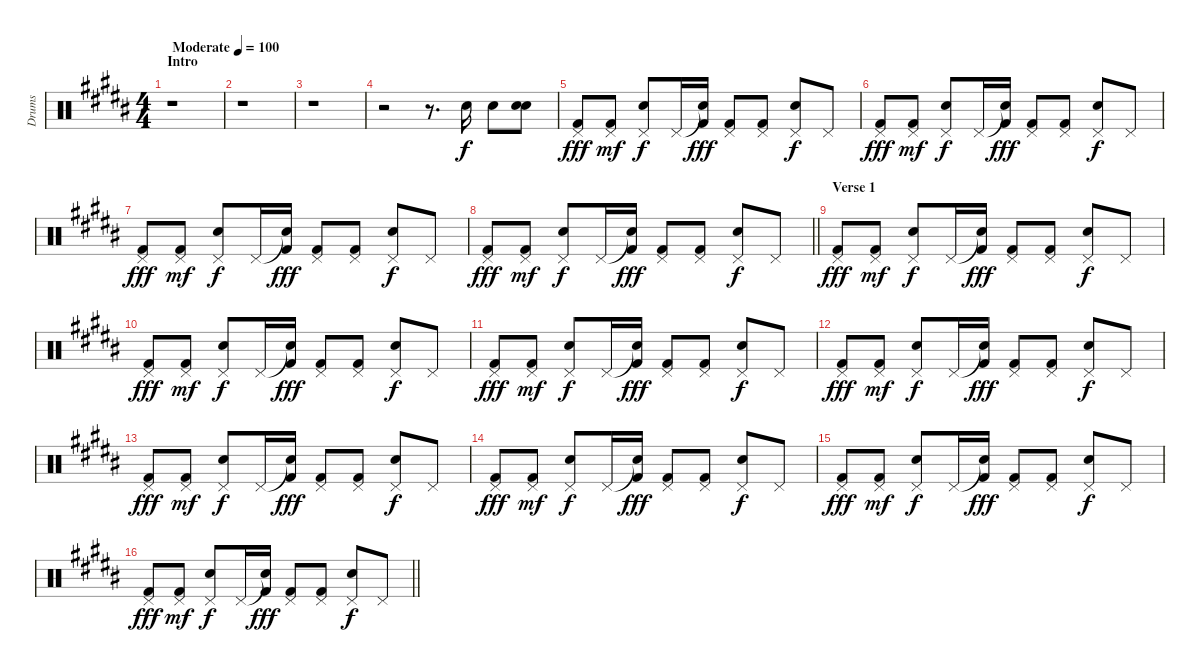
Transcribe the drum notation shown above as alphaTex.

\track ("Drums" "Drums") {instrument percussion}
\staff {score}
\articulation defaults
\ts (4 4)
\section ("" "Intro")
\tempo (100 "Moderate")
\clef neutral
\ks b
r.1{dy f} |
r.1 |
r.1 |
r.2 r.8{d} "Electric Snare (hit)".16 "Electric Snare (hit)".8 ("Snare (hit) 2" "Electric Snare (hit)").8 |
("Pedal Hi-Hat (hit)" "Kick (hit) 2").8{dy fff} ("Pedal Hi-Hat (hit)" "Kick (hit) 2").8{dy mf} ("Pedal Hi-Hat (hit)" "Snare (hit) 2").8{dy f} "Pedal Hi-Hat (hit)".16 ("Snare (hit)"{t} "Kick (hit) 2").16{dy fff} ("Pedal Hi-Hat (hit)" "Kick (hit) 2").8 ("Pedal Hi-Hat (hit)" "Kick (hit) 2").8 ("Pedal Hi-Hat (hit)" "Snare (hit) 2").8{dy f} "Pedal Hi-Hat (hit)".8 |
("Pedal Hi-Hat (hit)" "Kick (hit) 2").8{dy fff} ("Pedal Hi-Hat (hit)" "Kick (hit) 2").8{dy mf} ("Pedal Hi-Hat (hit)" "Snare (hit) 2").8{dy f} "Pedal Hi-Hat (hit)".16 ("Snare (hit)"{t} "Kick (hit) 2").16{dy fff} ("Pedal Hi-Hat (hit)" "Kick (hit) 2").8 ("Pedal Hi-Hat (hit)" "Kick (hit) 2").8 ("Pedal Hi-Hat (hit)" "Snare (hit) 2").8{dy f} "Pedal Hi-Hat (hit)".8 |
("Pedal Hi-Hat (hit)" "Kick (hit) 2").8{dy fff} ("Pedal Hi-Hat (hit)" "Kick (hit) 2").8{dy mf} ("Pedal Hi-Hat (hit)" "Snare (hit) 2").8{dy f} "Pedal Hi-Hat (hit)".16 ("Snare (hit)"{t} "Kick (hit) 2").16{dy fff} ("Pedal Hi-Hat (hit)" "Kick (hit) 2").8 ("Pedal Hi-Hat (hit)" "Kick (hit) 2").8 ("Pedal Hi-Hat (hit)" "Snare (hit) 2").8{dy f} "Pedal Hi-Hat (hit)".8 |
\barLineRight lightlight
("Pedal Hi-Hat (hit)" "Kick (hit) 2").8{dy fff} ("Pedal Hi-Hat (hit)" "Kick (hit) 2").8{dy mf} ("Pedal Hi-Hat (hit)" "Snare (hit) 2").8{dy f} "Pedal Hi-Hat (hit)".16 ("Snare (hit)"{t} "Kick (hit) 2").16{dy fff} ("Pedal Hi-Hat (hit)" "Kick (hit) 2").8 ("Pedal Hi-Hat (hit)" "Kick (hit) 2").8 ("Pedal Hi-Hat (hit)" "Snare (hit) 2").8{dy f} "Pedal Hi-Hat (hit)".8 |
\section ("" "Verse 1")
("Pedal Hi-Hat (hit)" "Kick (hit) 2").8{dy fff} ("Pedal Hi-Hat (hit)" "Kick (hit) 2").8{dy mf} ("Pedal Hi-Hat (hit)" "Snare (hit) 2").8{dy f} "Pedal Hi-Hat (hit)".16 ("Snare (hit)"{t} "Kick (hit) 2").16{dy fff} ("Pedal Hi-Hat (hit)" "Kick (hit) 2").8 ("Pedal Hi-Hat (hit)" "Kick (hit) 2").8 ("Pedal Hi-Hat (hit)" "Snare (hit) 2").8{dy f} "Pedal Hi-Hat (hit)".8 |
("Pedal Hi-Hat (hit)" "Kick (hit) 2").8{dy fff} ("Pedal Hi-Hat (hit)" "Kick (hit) 2").8{dy mf} ("Pedal Hi-Hat (hit)" "Snare (hit) 2").8{dy f} "Pedal Hi-Hat (hit)".16 ("Snare (hit)"{t} "Kick (hit) 2").16{dy fff} ("Pedal Hi-Hat (hit)" "Kick (hit) 2").8 ("Pedal Hi-Hat (hit)" "Kick (hit) 2").8 ("Pedal Hi-Hat (hit)" "Snare (hit) 2").8{dy f} "Pedal Hi-Hat (hit)".8 |
("Pedal Hi-Hat (hit)" "Kick (hit) 2").8{dy fff} ("Pedal Hi-Hat (hit)" "Kick (hit) 2").8{dy mf} ("Pedal Hi-Hat (hit)" "Snare (hit) 2").8{dy f} "Pedal Hi-Hat (hit)".16 ("Snare (hit)"{t} "Kick (hit) 2").16{dy fff} ("Pedal Hi-Hat (hit)" "Kick (hit) 2").8 ("Pedal Hi-Hat (hit)" "Kick (hit) 2").8 ("Pedal Hi-Hat (hit)" "Snare (hit) 2").8{dy f} "Pedal Hi-Hat (hit)".8 |
("Pedal Hi-Hat (hit)" "Kick (hit) 2").8{dy fff} ("Pedal Hi-Hat (hit)" "Kick (hit) 2").8{dy mf} ("Pedal Hi-Hat (hit)" "Snare (hit) 2").8{dy f} "Pedal Hi-Hat (hit)".16 ("Snare (hit)"{t} "Kick (hit) 2").16{dy fff} ("Pedal Hi-Hat (hit)" "Kick (hit) 2").8 ("Pedal Hi-Hat (hit)" "Kick (hit) 2").8 ("Pedal Hi-Hat (hit)" "Snare (hit) 2").8{dy f} "Pedal Hi-Hat (hit)".8 |
("Pedal Hi-Hat (hit)" "Kick (hit) 2").8{dy fff} ("Pedal Hi-Hat (hit)" "Kick (hit) 2").8{dy mf} ("Pedal Hi-Hat (hit)" "Snare (hit) 2").8{dy f} "Pedal Hi-Hat (hit)".16 ("Snare (hit)"{t} "Kick (hit) 2").16{dy fff} ("Pedal Hi-Hat (hit)" "Kick (hit) 2").8 ("Pedal Hi-Hat (hit)" "Kick (hit) 2").8 ("Pedal Hi-Hat (hit)" "Snare (hit) 2").8{dy f} "Pedal Hi-Hat (hit)".8 |
("Pedal Hi-Hat (hit)" "Kick (hit) 2").8{dy fff} ("Pedal Hi-Hat (hit)" "Kick (hit) 2").8{dy mf} ("Pedal Hi-Hat (hit)" "Snare (hit) 2").8{dy f} "Pedal Hi-Hat (hit)".16 ("Snare (hit)"{t} "Kick (hit) 2").16{dy fff} ("Pedal Hi-Hat (hit)" "Kick (hit) 2").8 ("Pedal Hi-Hat (hit)" "Kick (hit) 2").8 ("Pedal Hi-Hat (hit)" "Snare (hit) 2").8{dy f} "Pedal Hi-Hat (hit)".8 |
("Pedal Hi-Hat (hit)" "Kick (hit) 2").8{dy fff} ("Pedal Hi-Hat (hit)" "Kick (hit) 2").8{dy mf} ("Pedal Hi-Hat (hit)" "Snare (hit) 2").8{dy f} "Pedal Hi-Hat (hit)".16 ("Snare (hit)"{t} "Kick (hit) 2").16{dy fff} ("Pedal Hi-Hat (hit)" "Kick (hit) 2").8 ("Pedal Hi-Hat (hit)" "Kick (hit) 2").8 ("Pedal Hi-Hat (hit)" "Snare (hit) 2").8{dy f} "Pedal Hi-Hat (hit)".8 |
\barLineRight lightlight
("Pedal Hi-Hat (hit)" "Kick (hit) 2").8{dy fff} ("Pedal Hi-Hat (hit)" "Kick (hit) 2").8{dy mf} ("Pedal Hi-Hat (hit)" "Snare (hit) 2").8{dy f} "Pedal Hi-Hat (hit)".16 ("Snare (hit)"{t} "Kick (hit) 2").16{dy fff} ("Pedal Hi-Hat (hit)" "Kick (hit) 2").8 ("Pedal Hi-Hat (hit)" "Kick (hit) 2").8 ("Pedal Hi-Hat (hit)" "Snare (hit) 2").8{dy f} "Pedal Hi-Hat (hit)".8
